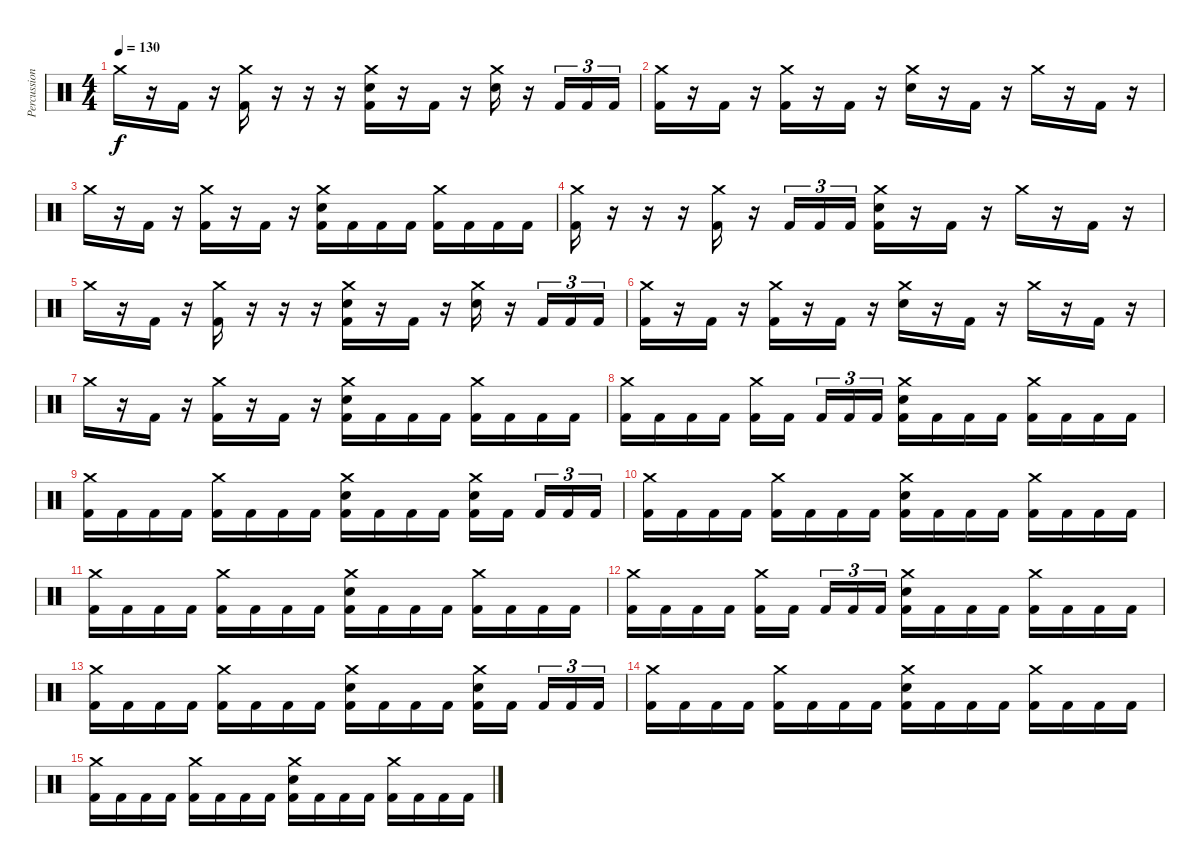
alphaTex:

\track ("Percussion" "Percussion") {instrument percussion}
\staff {score}
\articulation defaults
\ts (4 4)
\tempo 130
\clef neutral
\ks c "Crash medium (hit)".16{dy f}
r.16 "Kick (hit) 2".16 r.16 ("Crash medium (hit)" "Kick (hit) 2").16 r.16 r.16 r.16 ("Crash medium (hit)" "Snare (hit) 2" "Kick (hit) 2").16 r.16 "Kick (hit) 2".16 r.16 ("Crash medium (hit)" "Snare (hit) 2").16 r.16 "Kick (hit) 2".16{tu (3 2)} "Kick (hit) 2".16{tu (3 2)} "Kick (hit) 2".16{tu (3 2)} |
("Crash medium (hit)" "Kick (hit) 2").16 r.16 "Kick (hit) 2".16 r.16 ("Crash medium (hit)" "Kick (hit) 2").16 r.16 "Kick (hit) 2".16 r.16 ("Crash medium (hit)" "Snare (hit) 2").16 r.16 "Kick (hit) 2".16 r.16 "Crash medium (hit)".16 r.16 "Kick (hit) 2".16 r.16 |
"Crash medium (hit)".16 r.16 "Kick (hit) 2".16 r.16 ("Crash medium (hit)" "Kick (hit) 2").16 r.16 "Kick (hit) 2".16 r.16 ("Crash medium (hit)" "Snare (hit) 2" "Kick (hit) 2").16 "Kick (hit) 2".16 "Kick (hit) 2".16 "Kick (hit) 2".16 ("Crash medium (hit)" "Kick (hit) 2").16 "Kick (hit) 2".16 "Kick (hit) 2".16 "Kick (hit) 2".16 |
("Crash medium (hit)" "Kick (hit) 2").16 r.16 r.16 r.16 ("Crash medium (hit)" "Kick (hit) 2").16 r.16 "Kick (hit) 2".16{tu (3 2)} "Kick (hit) 2".16{tu (3 2)} "Kick (hit) 2".16{tu (3 2)} ("Crash medium (hit)" "Snare (hit) 2" "Kick (hit) 2").16 r.16 "Kick (hit) 2".16 r.16 "Crash medium (hit)".16 r.16 "Kick (hit) 2".16 r.16 |
"Crash medium (hit)".16 r.16 "Kick (hit) 2".16 r.16 ("Crash medium (hit)" "Kick (hit) 2").16 r.16 r.16 r.16 ("Crash medium (hit)" "Snare (hit) 2" "Kick (hit) 2").16 r.16 "Kick (hit) 2".16 r.16 ("Crash medium (hit)" "Snare (hit) 2").16 r.16 "Kick (hit) 2".16{tu (3 2)} "Kick (hit) 2".16{tu (3 2)} "Kick (hit) 2".16{tu (3 2)} |
("Crash medium (hit)" "Kick (hit) 2").16 r.16 "Kick (hit) 2".16 r.16 ("Crash medium (hit)" "Kick (hit) 2").16 r.16 "Kick (hit) 2".16 r.16 ("Crash medium (hit)" "Snare (hit) 2").16 r.16 "Kick (hit) 2".16 r.16 "Crash medium (hit)".16 r.16 "Kick (hit) 2".16 r.16 |
"Crash medium (hit)".16 r.16 "Kick (hit) 2".16 r.16 ("Crash medium (hit)" "Kick (hit) 2").16 r.16 "Kick (hit) 2".16 r.16 ("Crash medium (hit)" "Snare (hit) 2" "Kick (hit) 2").16 "Kick (hit) 2".16 "Kick (hit) 2".16 "Kick (hit) 2".16 ("Crash medium (hit)" "Kick (hit) 2").16 "Kick (hit) 2".16 "Kick (hit) 2".16 "Kick (hit) 2".16 |
("Crash medium (hit)" "Kick (hit) 2").16 "Kick (hit) 2".16 "Kick (hit) 2".16 "Kick (hit) 2".16 ("Crash medium (hit)" "Kick (hit) 2").16 "Kick (hit) 2".16{beam splitsecondary} "Kick (hit) 2".16{tu (3 2)} "Kick (hit) 2".16{tu (3 2)} "Kick (hit) 2".16{tu (3 2)} ("Crash medium (hit)" "Snare (hit) 2" "Kick (hit) 2").16 "Kick (hit) 2".16 "Kick (hit) 2".16 "Kick (hit) 2".16 ("Crash medium (hit)" "Kick (hit) 2").16 "Kick (hit) 2".16 "Kick (hit) 2".16 "Kick (hit) 2".16 |
("Crash medium (hit)" "Kick (hit) 2").16 "Kick (hit) 2".16 "Kick (hit) 2".16 "Kick (hit) 2".16 ("Crash medium (hit)" "Kick (hit) 2").16 "Kick (hit) 2".16 "Kick (hit) 2".16 "Kick (hit) 2".16 ("Crash medium (hit)" "Snare (hit) 2" "Kick (hit) 2").16 "Kick (hit) 2".16 "Kick (hit) 2".16 "Kick (hit) 2".16 ("Crash medium (hit)" "Snare (hit) 2" "Kick (hit) 2").16 "Kick (hit) 2".16{beam splitsecondary} "Kick (hit) 2".16{tu (3 2)} "Kick (hit) 2".16{tu (3 2)} "Kick (hit) 2".16{tu (3 2)} |
("Crash medium (hit)" "Kick (hit) 2").16 "Kick (hit) 2".16 "Kick (hit) 2".16 "Kick (hit) 2".16 ("Crash medium (hit)" "Kick (hit) 2").16 "Kick (hit) 2".16 "Kick (hit) 2".16 "Kick (hit) 2".16 ("Crash medium (hit)" "Snare (hit) 2" "Kick (hit) 2").16 "Kick (hit) 2".16 "Kick (hit) 2".16 "Kick (hit) 2".16 ("Crash medium (hit)" "Kick (hit) 2").16 "Kick (hit) 2".16 "Kick (hit) 2".16 "Kick (hit) 2".16 |
("Crash medium (hit)" "Kick (hit) 2").16 "Kick (hit) 2".16 "Kick (hit) 2".16 "Kick (hit) 2".16 ("Crash medium (hit)" "Kick (hit) 2").16 "Kick (hit) 2".16 "Kick (hit) 2".16 "Kick (hit) 2".16 ("Crash medium (hit)" "Snare (hit) 2" "Kick (hit) 2").16 "Kick (hit) 2".16 "Kick (hit) 2".16 "Kick (hit) 2".16 ("Crash medium (hit)" "Kick (hit) 2").16 "Kick (hit) 2".16 "Kick (hit) 2".16 "Kick (hit) 2".16 |
("Crash medium (hit)" "Kick (hit) 2").16 "Kick (hit) 2".16 "Kick (hit) 2".16 "Kick (hit) 2".16 ("Crash medium (hit)" "Kick (hit) 2").16 "Kick (hit) 2".16{beam splitsecondary} "Kick (hit) 2".16{tu (3 2)} "Kick (hit) 2".16{tu (3 2)} "Kick (hit) 2".16{tu (3 2)} ("Crash medium (hit)" "Snare (hit) 2" "Kick (hit) 2").16 "Kick (hit) 2".16 "Kick (hit) 2".16 "Kick (hit) 2".16 ("Crash medium (hit)" "Kick (hit) 2").16 "Kick (hit) 2".16 "Kick (hit) 2".16 "Kick (hit) 2".16 |
("Crash medium (hit)" "Kick (hit) 2").16 "Kick (hit) 2".16 "Kick (hit) 2".16 "Kick (hit) 2".16 ("Crash medium (hit)" "Kick (hit) 2").16 "Kick (hit) 2".16 "Kick (hit) 2".16 "Kick (hit) 2".16 ("Crash medium (hit)" "Snare (hit) 2" "Kick (hit) 2").16 "Kick (hit) 2".16 "Kick (hit) 2".16 "Kick (hit) 2".16 ("Crash medium (hit)" "Snare (hit) 2" "Kick (hit) 2").16 "Kick (hit) 2".16{beam splitsecondary} "Kick (hit) 2".16{tu (3 2)} "Kick (hit) 2".16{tu (3 2)} "Kick (hit) 2".16{tu (3 2)} |
("Crash medium (hit)" "Kick (hit) 2").16 "Kick (hit) 2".16 "Kick (hit) 2".16 "Kick (hit) 2".16 ("Crash medium (hit)" "Kick (hit) 2").16 "Kick (hit) 2".16 "Kick (hit) 2".16 "Kick (hit) 2".16 ("Crash medium (hit)" "Snare (hit) 2" "Kick (hit) 2").16 "Kick (hit) 2".16 "Kick (hit) 2".16 "Kick (hit) 2".16 ("Crash medium (hit)" "Kick (hit) 2").16 "Kick (hit) 2".16 "Kick (hit) 2".16 "Kick (hit) 2".16 |
("Crash medium (hit)" "Kick (hit) 2").16 "Kick (hit) 2".16 "Kick (hit) 2".16 "Kick (hit) 2".16 ("Crash medium (hit)" "Kick (hit) 2").16 "Kick (hit) 2".16 "Kick (hit) 2".16 "Kick (hit) 2".16 ("Crash medium (hit)" "Snare (hit) 2" "Kick (hit) 2").16 "Kick (hit) 2".16 "Kick (hit) 2".16 "Kick (hit) 2".16 ("Crash medium (hit)" "Kick (hit) 2").16 "Kick (hit) 2".16 "Kick (hit) 2".16 "Kick (hit) 2".16
